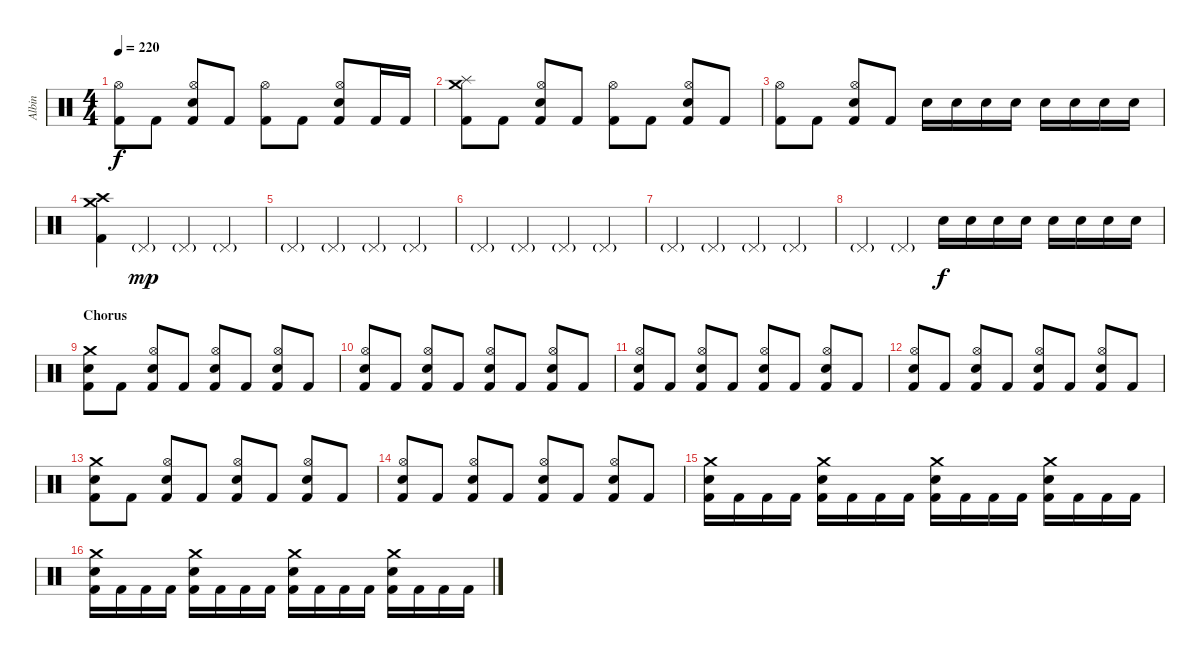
\track ("Albin" "Albin") {instrument percussion}
\staff {score}
\articulation defaults
\ts (4 4)
\tempo 220
\clef neutral
\ks c
("Kick (hit) 2" "Hi-Hat (open)").8{dy f} "Kick (hit) 2".8 ("Kick (hit) 2" "Electric Snare (hit)" "Hi-Hat (open)").8 "Kick (hit) 2".8 ("Kick (hit) 2" "Hi-Hat (open)").8 "Kick (hit) 2".8 ("Kick (hit) 2" "Electric Snare (hit)" "Hi-Hat (open)").8 "Kick (hit) 2".16 "Kick (hit) 2".16 |
("Kick (hit) 2" "Crash medium (hit)" "Splash (hit)").8 "Kick (hit) 2".8 ("Kick (hit) 2" "Electric Snare (hit)" "Hi-Hat (open)").8 "Kick (hit) 2".8 ("Kick (hit) 2" "Hi-Hat (open)").8 "Kick (hit) 2".8 ("Kick (hit) 2" "Electric Snare (hit)" "Hi-Hat (open)").8 "Kick (hit) 2".8 |
("Kick (hit) 2" "Hi-Hat (open)").8 "Kick (hit) 2".8 ("Kick (hit) 2" "Electric Snare (hit)" "Hi-Hat (open)").8 "Kick (hit) 2".8 "Electric Snare (hit)".16 "Electric Snare (hit)".16 "Electric Snare (hit)".16 "Electric Snare (hit)".16 "Electric Snare (hit)".16 "Electric Snare (hit)".16 "Electric Snare (hit)".16 "Electric Snare (hit)".16 |
("Kick (hit) 2" "Crash high (hit)" "Crash medium (hit)").4 "Pedal Hi-Hat (hit)"{g}.4{dy mp} "Pedal Hi-Hat (hit)"{g}.4 "Pedal Hi-Hat (hit)"{g}.4 |
"Pedal Hi-Hat (hit)"{g}.4 "Pedal Hi-Hat (hit)"{g}.4 "Pedal Hi-Hat (hit)"{g}.4 "Pedal Hi-Hat (hit)"{g}.4 |
"Pedal Hi-Hat (hit)"{g}.4 "Pedal Hi-Hat (hit)"{g}.4 "Pedal Hi-Hat (hit)"{g}.4 "Pedal Hi-Hat (hit)"{g}.4 |
"Pedal Hi-Hat (hit)"{g}.4 "Pedal Hi-Hat (hit)"{g}.4 "Pedal Hi-Hat (hit)"{g}.4 "Pedal Hi-Hat (hit)"{g}.4 |
"Pedal Hi-Hat (hit)"{g}.4 "Pedal Hi-Hat (hit)"{g}.4 "Electric Snare (hit)".16{dy f} "Electric Snare (hit)".16 "Electric Snare (hit)".16 "Electric Snare (hit)".16 "Electric Snare (hit)".16 "Electric Snare (hit)".16 "Electric Snare (hit)".16 "Electric Snare (hit)".16 |
\section ("" "Chorus")
("Kick (hit) 2" "Electric Snare (hit)" "Crash medium (hit)").8 "Kick (hit) 2".8 ("Kick (hit) 2" "Electric Snare (hit)" "Hi-Hat (open)").8 "Kick (hit) 2".8 ("Kick (hit) 2" "Electric Snare (hit)" "Hi-Hat (open)").8 "Kick (hit) 2".8 ("Kick (hit) 2" "Electric Snare (hit)" "Hi-Hat (open)").8 "Kick (hit) 2".8 |
("Kick (hit) 2" "Electric Snare (hit)" "Hi-Hat (open)").8 "Kick (hit) 2".8 ("Kick (hit) 2" "Electric Snare (hit)" "Hi-Hat (open)").8 "Kick (hit) 2".8 ("Kick (hit) 2" "Electric Snare (hit)" "Hi-Hat (open)").8 "Kick (hit) 2".8 ("Kick (hit) 2" "Electric Snare (hit)" "Hi-Hat (open)").8 "Kick (hit) 2".8 |
("Kick (hit) 2" "Electric Snare (hit)" "Hi-Hat (open)").8 "Kick (hit) 2".8 ("Kick (hit) 2" "Electric Snare (hit)" "Hi-Hat (open)").8 "Kick (hit) 2".8 ("Kick (hit) 2" "Electric Snare (hit)" "Hi-Hat (open)").8 "Kick (hit) 2".8 ("Kick (hit) 2" "Electric Snare (hit)" "Hi-Hat (open)").8 "Kick (hit) 2".8 |
("Kick (hit) 2" "Electric Snare (hit)" "Hi-Hat (open)").8 "Kick (hit) 2".8 ("Kick (hit) 2" "Electric Snare (hit)" "Hi-Hat (open)").8 "Kick (hit) 2".8 ("Kick (hit) 2" "Electric Snare (hit)" "Hi-Hat (open)").8 "Kick (hit) 2".8 ("Kick (hit) 2" "Electric Snare (hit)" "Hi-Hat (open)").8 "Kick (hit) 2".8 |
("Kick (hit) 2" "Electric Snare (hit)" "Crash medium (hit)").8 "Kick (hit) 2".8 ("Kick (hit) 2" "Electric Snare (hit)" "Hi-Hat (open)").8 "Kick (hit) 2".8 ("Kick (hit) 2" "Electric Snare (hit)" "Hi-Hat (open)").8 "Kick (hit) 2".8 ("Kick (hit) 2" "Electric Snare (hit)" "Hi-Hat (open)").8 "Kick (hit) 2".8 |
("Kick (hit) 2" "Electric Snare (hit)" "Hi-Hat (open)").8 "Kick (hit) 2".8 ("Kick (hit) 2" "Electric Snare (hit)" "Hi-Hat (open)").8 "Kick (hit) 2".8 ("Kick (hit) 2" "Electric Snare (hit)" "Hi-Hat (open)").8 "Kick (hit) 2".8 ("Kick (hit) 2" "Electric Snare (hit)" "Hi-Hat (open)").8 "Kick (hit) 2".8 |
("Kick (hit) 2" "Electric Snare (hit)" "Crash medium (hit)").16 "Kick (hit) 2".16 "Kick (hit) 2".16 "Kick (hit) 2".16 ("Kick (hit) 2" "Electric Snare (hit)" "Crash medium (hit)").16 "Kick (hit) 2".16 "Kick (hit) 2".16 "Kick (hit) 2".16 ("Kick (hit) 2" "Electric Snare (hit)" "Crash medium (hit)").16 "Kick (hit) 2".16 "Kick (hit) 2".16 "Kick (hit) 2".16 ("Kick (hit) 2" "Electric Snare (hit)" "Crash medium (hit)").16 "Kick (hit) 2".16 "Kick (hit) 2".16 "Kick (hit) 2".16 |
("Kick (hit) 2" "Electric Snare (hit)" "Crash medium (hit)").16 "Kick (hit) 2".16 "Kick (hit) 2".16 "Kick (hit) 2".16 ("Kick (hit) 2" "Electric Snare (hit)" "Crash medium (hit)").16 "Kick (hit) 2".16 "Kick (hit) 2".16 "Kick (hit) 2".16 ("Kick (hit) 2" "Electric Snare (hit)" "Crash medium (hit)").16 "Kick (hit) 2".16 "Kick (hit) 2".16 "Kick (hit) 2".16 ("Kick (hit) 2" "Electric Snare (hit)" "Crash medium (hit)").16 "Kick (hit) 2".16 "Kick (hit) 2".16 "Kick (hit) 2".16
